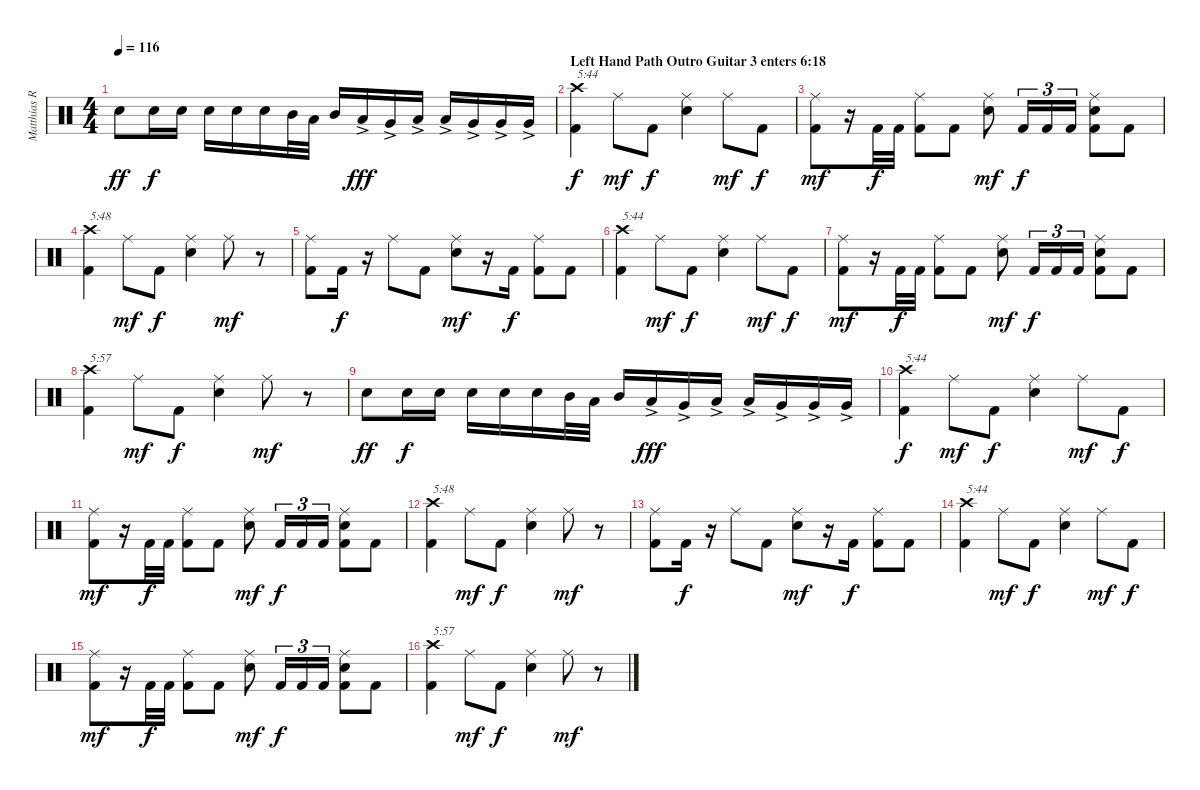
\track ("Matthias R." "Matthias R") {instrument percussion}
\staff {score}
\articulation defaults
\ts (4 4)
\tempo 116
\clef neutral
\ks c "Electric Snare (hit)".8{dy ff} "Electric Snare (hit)".16{dy f} "Electric Snare (hit)".16 "Electric Snare (hit)".16 "Electric Snare (hit)".16 "Electric Snare (hit)".16 "Mid Tom (hit)".32 "Low Tom (hit)".32 "Mid Tom (hit)".16 "Low Tom (hit)"{ac}.16{dy fff} "Very Low Tom (hit)"{ac}.16 "Low Tom (hit)"{ac}.16 "Low Tom (hit)"{ac}.16 "Very Low Tom (hit)"{ac}.16 "Very Low Tom (hit)"{ac}.16 "Very Low Tom (hit)"{ac}.16
|
\section ("" "Left Hand Path Outro Guitar 3 enters 6:18")
("Kick (hit) 2" "Crash high (hit)").4{txt "5:44" dy f} "Ride (middle)".8{dy mf} "Kick (hit) 2".8{dy f} ("Electric Snare (hit)" "Ride (middle)").4 "Ride (middle)".8{dy mf} "Kick (hit) 2".8{dy f} |
("Kick (hit) 2" "Ride (middle)").8{dy mf} r.16 "Kick (hit) 2".32{dy f} "Kick (hit) 2".32 ("Kick (hit) 2" "Ride (middle)").8 "Kick (hit) 2".8 ("Electric Snare (hit)" "Ride (middle)").8{dy mf} "Kick (hit) 2".16{tu (3 2) dy f} "Kick (hit) 2".16{tu (3 2)} "Kick (hit) 2".16{tu (3 2)} ("Kick (hit) 2" "Electric Snare (hit)" "Ride (middle)").8 "Kick (hit) 2".8 |
("Kick (hit) 2" "Crash high (hit)").4{txt "5:48"} "Ride (middle)".8{dy mf} "Kick (hit) 2".8{dy f} ("Electric Snare (hit)" "Ride (middle)").4 "Ride (middle)".8{dy mf} r.8 |
("Kick (hit) 2" "Ride (middle)").8 "Kick (hit) 2".16{dy f} r.16 "Ride (middle)".8 "Kick (hit) 2".8 ("Electric Snare (hit)" "Ride (middle)").8{dy mf} r.16 "Kick (hit) 2".16{dy f} ("Kick (hit) 2" "Ride (middle)").8 "Kick (hit) 2".8 |
("Kick (hit) 2" "Crash high (hit)").4{txt "5:44"} "Ride (middle)".8{dy mf} "Kick (hit) 2".8{dy f} ("Electric Snare (hit)" "Ride (middle)").4 "Ride (middle)".8{dy mf} "Kick (hit) 2".8{dy f} |
("Kick (hit) 2" "Ride (middle)").8{dy mf} r.16 "Kick (hit) 2".32{dy f} "Kick (hit) 2".32 ("Kick (hit) 2" "Ride (middle)").8 "Kick (hit) 2".8 ("Electric Snare (hit)" "Ride (middle)").8{dy mf} "Kick (hit) 2".16{tu (3 2) dy f} "Kick (hit) 2".16{tu (3 2)} "Kick (hit) 2".16{tu (3 2)} ("Kick (hit) 2" "Electric Snare (hit)" "Ride (middle)").8 "Kick (hit) 2".8 |
("Kick (hit) 2" "Crash high (hit)").4{txt "5:57"} "Ride (middle)".8{dy mf} "Kick (hit) 2".8{dy f} ("Electric Snare (hit)" "Ride (middle)").4 "Ride (middle)".8{dy mf} r.8 |
"Electric Snare (hit)".8{dy ff} "Electric Snare (hit)".16{dy f} "Electric Snare (hit)".16 "Electric Snare (hit)".16 "Electric Snare (hit)".16 "Electric Snare (hit)".16 "Mid Tom (hit)".32 "Low Tom (hit)".32 "Mid Tom (hit)".16 "Low Tom (hit)"{ac}.16{dy fff} "Very Low Tom (hit)"{ac}.16 "Low Tom (hit)"{ac}.16 "Low Tom (hit)"{ac}.16 "Very Low Tom (hit)"{ac}.16 "Very Low Tom (hit)"{ac}.16 "Very Low Tom (hit)"{ac}.16 |
("Kick (hit) 2" "Crash high (hit)").4{txt "5:44" dy f} "Ride (middle)".8{dy mf} "Kick (hit) 2".8{dy f} ("Electric Snare (hit)" "Ride (middle)").4 "Ride (middle)".8{dy mf} "Kick (hit) 2".8{dy f} |
("Kick (hit) 2" "Ride (middle)").8{dy mf} r.16 "Kick (hit) 2".32{dy f} "Kick (hit) 2".32 ("Kick (hit) 2" "Ride (middle)").8 "Kick (hit) 2".8 ("Electric Snare (hit)" "Ride (middle)").8{dy mf} "Kick (hit) 2".16{tu (3 2) dy f} "Kick (hit) 2".16{tu (3 2)} "Kick (hit) 2".16{tu (3 2)} ("Kick (hit) 2" "Electric Snare (hit)" "Ride (middle)").8 "Kick (hit) 2".8 |
("Kick (hit) 2" "Crash high (hit)").4{txt "5:48"} "Ride (middle)".8{dy mf} "Kick (hit) 2".8{dy f} ("Electric Snare (hit)" "Ride (middle)").4 "Ride (middle)".8{dy mf} r.8 |
("Kick (hit) 2" "Ride (middle)").8 "Kick (hit) 2".16{dy f} r.16 "Ride (middle)".8 "Kick (hit) 2".8 ("Electric Snare (hit)" "Ride (middle)").8{dy mf} r.16 "Kick (hit) 2".16{dy f} ("Kick (hit) 2" "Ride (middle)").8 "Kick (hit) 2".8 |
("Kick (hit) 2" "Crash high (hit)").4{txt "5:44"} "Ride (middle)".8{dy mf} "Kick (hit) 2".8{dy f} ("Electric Snare (hit)" "Ride (middle)").4 "Ride (middle)".8{dy mf} "Kick (hit) 2".8{dy f} |
("Kick (hit) 2" "Ride (middle)").8{dy mf} r.16 "Kick (hit) 2".32{dy f} "Kick (hit) 2".32 ("Kick (hit) 2" "Ride (middle)").8 "Kick (hit) 2".8 ("Electric Snare (hit)" "Ride (middle)").8{dy mf} "Kick (hit) 2".16{tu (3 2) dy f} "Kick (hit) 2".16{tu (3 2)} "Kick (hit) 2".16{tu (3 2)} ("Kick (hit) 2" "Electric Snare (hit)" "Ride (middle)").8 "Kick (hit) 2".8 |
("Kick (hit) 2" "Crash high (hit)").4{txt "5:57"} "Ride (middle)".8{dy mf} "Kick (hit) 2".8{dy f} ("Electric Snare (hit)" "Ride (middle)").4 "Ride (middle)".8{dy mf} r.8
